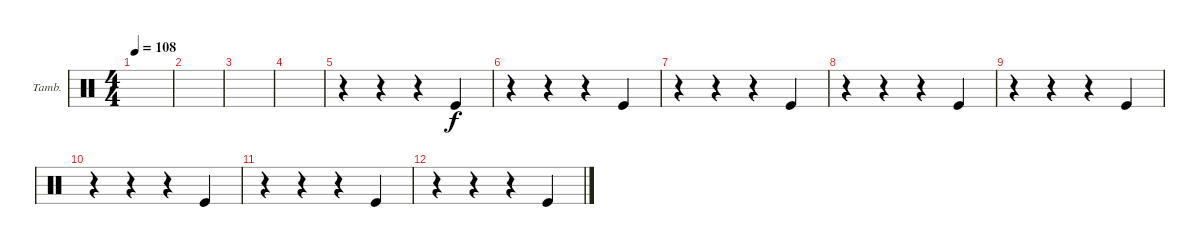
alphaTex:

\defaultSystemsLayout 4
\bracketExtendMode groupsimilarinstruments
\firstSystemTrackNameOrientation horizontal
\otherSystemsTrackNameOrientation horizontal
\track ("Tambourine" "Tamb.") {instrument percussion}
\staff {score}
\articulation defaults
\ts (4 4)
\tempo 108
\clef neutral
\ks c
|
|
|
|
r.4 r.4 r.4 "Kick (hit)".4 |
r.4 r.4 r.4 "Kick (hit)".4 |
r.4 r.4 r.4 "Kick (hit)".4 |
r.4 r.4 r.4 "Kick (hit)".4 |
r.4 r.4 r.4 "Kick (hit)".4 |
r.4 r.4 r.4 "Kick (hit)".4 |
r.4 r.4 r.4 "Kick (hit)".4 |
r.4 r.4 r.4 "Kick (hit)".4
